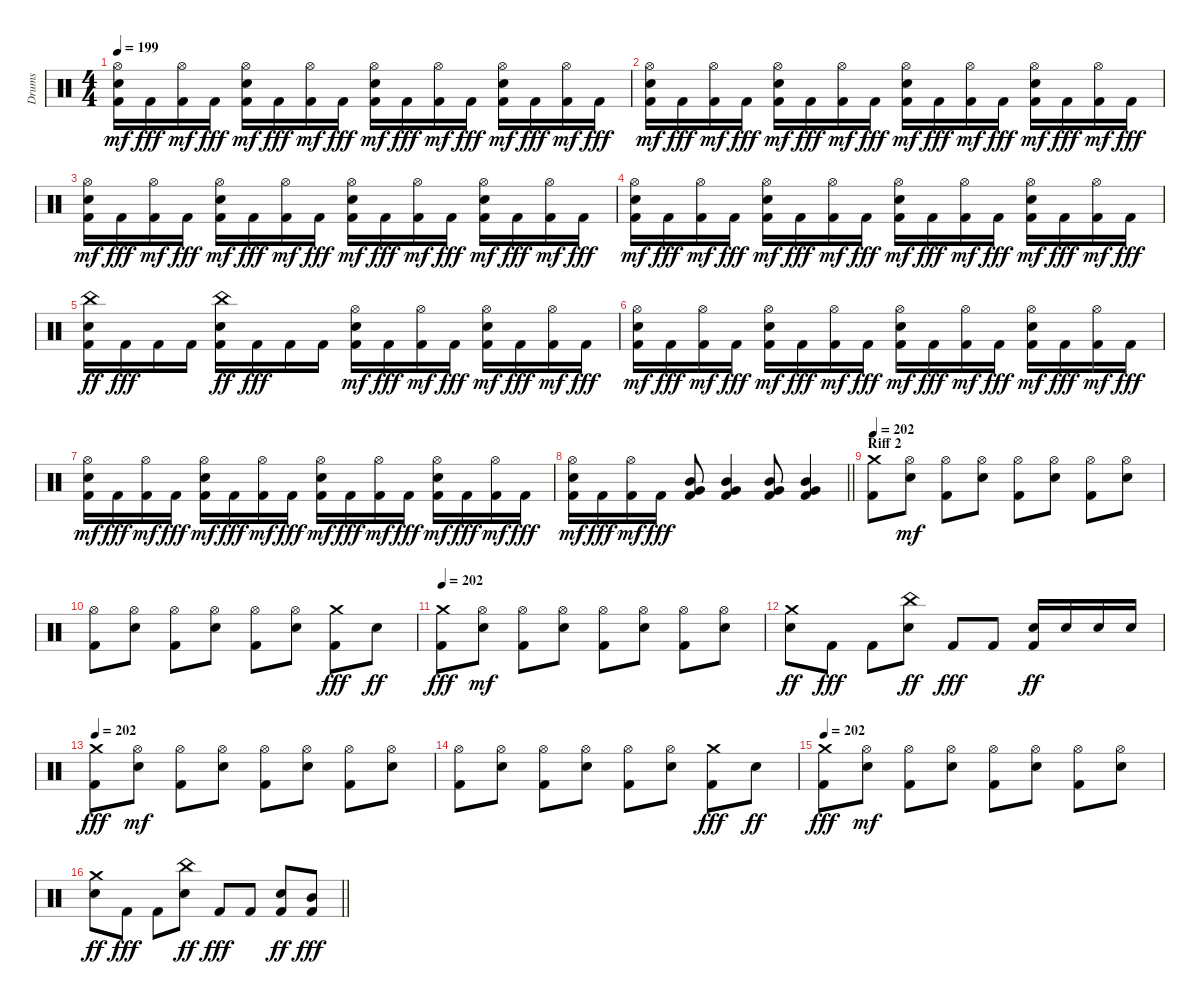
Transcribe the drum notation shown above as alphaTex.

\track ("Drums" "Drums") {instrument percussion}
\staff {score}
\articulation defaults
\ts (4 4)
\tempo 199
\clef neutral
\ks c
("Kick (hit) 2" "Snare (hit) 2" "Hi-Hat (open)").16{dy mf} "Kick (hit) 2".16{dy fff} ("Kick (hit) 2" "Hi-Hat (open)").16{dy mf} "Kick (hit) 2".16{dy fff} ("Kick (hit) 2" "Snare (hit) 2" "Hi-Hat (open)").16{dy mf} "Kick (hit) 2".16{dy fff} ("Kick (hit) 2" "Hi-Hat (open)").16{dy mf} "Kick (hit) 2".16{dy fff} ("Kick (hit) 2" "Snare (hit) 2" "Hi-Hat (open)").16{dy mf} "Kick (hit) 2".16{dy fff} ("Kick (hit) 2" "Hi-Hat (open)").16{dy mf} "Kick (hit) 2".16{dy fff} ("Kick (hit) 2" "Snare (hit) 2" "Hi-Hat (open)").16{dy mf} "Kick (hit) 2".16{dy fff} ("Kick (hit) 2" "Hi-Hat (open)").16{dy mf} "Kick (hit) 2".16{dy fff} |
("Kick (hit) 2" "Snare (hit) 2" "Hi-Hat (open)").16{dy mf} "Kick (hit) 2".16{dy fff} ("Kick (hit) 2" "Hi-Hat (open)").16{dy mf} "Kick (hit) 2".16{dy fff} ("Kick (hit) 2" "Snare (hit) 2" "Hi-Hat (open)").16{dy mf} "Kick (hit) 2".16{dy fff} ("Kick (hit) 2" "Hi-Hat (open)").16{dy mf} "Kick (hit) 2".16{dy fff} ("Kick (hit) 2" "Snare (hit) 2" "Hi-Hat (open)").16{dy mf} "Kick (hit) 2".16{dy fff} ("Kick (hit) 2" "Hi-Hat (open)").16{dy mf} "Kick (hit) 2".16{dy fff} ("Kick (hit) 2" "Snare (hit) 2" "Hi-Hat (open)").16{dy mf} "Kick (hit) 2".16{dy fff} ("Kick (hit) 2" "Hi-Hat (open)").16{dy mf} "Kick (hit) 2".16{dy fff} |
("Kick (hit) 2" "Snare (hit) 2" "Hi-Hat (open)").16{dy mf} "Kick (hit) 2".16{dy fff} ("Kick (hit) 2" "Hi-Hat (open)").16{dy mf} "Kick (hit) 2".16{dy fff} ("Kick (hit) 2" "Snare (hit) 2" "Hi-Hat (open)").16{dy mf} "Kick (hit) 2".16{dy fff} ("Kick (hit) 2" "Hi-Hat (open)").16{dy mf} "Kick (hit) 2".16{dy fff} ("Kick (hit) 2" "Snare (hit) 2" "Hi-Hat (open)").16{dy mf} "Kick (hit) 2".16{dy fff} ("Kick (hit) 2" "Hi-Hat (open)").16{dy mf} "Kick (hit) 2".16{dy fff} ("Kick (hit) 2" "Snare (hit) 2" "Hi-Hat (open)").16{dy mf} "Kick (hit) 2".16{dy fff} ("Kick (hit) 2" "Hi-Hat (open)").16{dy mf} "Kick (hit) 2".16{dy fff} |
("Kick (hit) 2" "Snare (hit) 2" "Hi-Hat (open)").16{dy mf} "Kick (hit) 2".16{dy fff} ("Kick (hit) 2" "Hi-Hat (open)").16{dy mf} "Kick (hit) 2".16{dy fff} ("Kick (hit) 2" "Snare (hit) 2" "Hi-Hat (open)").16{dy mf} "Kick (hit) 2".16{dy fff} ("Kick (hit) 2" "Hi-Hat (open)").16{dy mf} "Kick (hit) 2".16{dy fff} ("Kick (hit) 2" "Snare (hit) 2" "Hi-Hat (open)").16{dy mf} "Kick (hit) 2".16{dy fff} ("Kick (hit) 2" "Hi-Hat (open)").16{dy mf} "Kick (hit) 2".16{dy fff} ("Kick (hit) 2" "Snare (hit) 2" "Hi-Hat (open)").16{dy mf} "Kick (hit) 2".16{dy fff} ("Kick (hit) 2" "Hi-Hat (open)").16{dy mf} "Kick (hit) 2".16{dy fff} |
("Kick (hit) 2" "Snare (hit) 2" "China (hit)").16{dy ff} "Kick (hit) 2".16{dy fff} "Kick (hit) 2".16 "Kick (hit) 2".16 ("Kick (hit) 2" "Snare (hit) 2" "China (hit)").16{dy ff} "Kick (hit) 2".16{dy fff} "Kick (hit) 2".16 "Kick (hit) 2".16 ("Kick (hit) 2" "Snare (hit) 2" "Hi-Hat (open)").16{dy mf} "Kick (hit) 2".16{dy fff} ("Kick (hit) 2" "Hi-Hat (open)").16{dy mf} "Kick (hit) 2".16{dy fff} ("Kick (hit) 2" "Snare (hit) 2" "Hi-Hat (open)").16{dy mf} "Kick (hit) 2".16{dy fff} ("Kick (hit) 2" "Hi-Hat (open)").16{dy mf} "Kick (hit) 2".16{dy fff} |
("Kick (hit) 2" "Snare (hit) 2" "Hi-Hat (open)").16{dy mf} "Kick (hit) 2".16{dy fff} ("Kick (hit) 2" "Hi-Hat (open)").16{dy mf} "Kick (hit) 2".16{dy fff} ("Kick (hit) 2" "Snare (hit) 2" "Hi-Hat (open)").16{dy mf} "Kick (hit) 2".16{dy fff} ("Kick (hit) 2" "Hi-Hat (open)").16{dy mf} "Kick (hit) 2".16{dy fff} ("Kick (hit) 2" "Snare (hit) 2" "Hi-Hat (open)").16{dy mf} "Kick (hit) 2".16{dy fff} ("Kick (hit) 2" "Hi-Hat (open)").16{dy mf} "Kick (hit) 2".16{dy fff} ("Kick (hit) 2" "Snare (hit) 2" "Hi-Hat (open)").16{dy mf} "Kick (hit) 2".16{dy fff} ("Kick (hit) 2" "Hi-Hat (open)").16{dy mf} "Kick (hit) 2".16{dy fff} |
("Kick (hit) 2" "Snare (hit) 2" "Hi-Hat (open)").16{dy mf} "Kick (hit) 2".16{dy fff} ("Kick (hit) 2" "Hi-Hat (open)").16{dy mf} "Kick (hit) 2".16{dy fff} ("Kick (hit) 2" "Snare (hit) 2" "Hi-Hat (open)").16{dy mf} "Kick (hit) 2".16{dy fff} ("Kick (hit) 2" "Hi-Hat (open)").16{dy mf} "Kick (hit) 2".16{dy fff} ("Kick (hit) 2" "Snare (hit) 2" "Hi-Hat (open)").16{dy mf} "Kick (hit) 2".16{dy fff} ("Kick (hit) 2" "Hi-Hat (open)").16{dy mf} "Kick (hit) 2".16{dy fff} ("Kick (hit) 2" "Snare (hit) 2" "Hi-Hat (open)").16{dy mf} "Kick (hit) 2".16{dy fff} ("Kick (hit) 2" "Hi-Hat (open)").16{dy mf} "Kick (hit) 2".16{dy fff} |
\barLineRight lightlight
("Kick (hit) 2" "Snare (hit) 2" "Hi-Hat (open)").16{dy mf} "Kick (hit) 2".16{dy fff} ("Kick (hit) 2" "Hi-Hat (open)").16{dy mf} "Kick (hit) 2".16{dy fff} ("Kick (hit) 2" "Very Low Tom (hit)" "Mid Tom (hit)").8 ("Kick (hit) 2" "Very Low Tom (hit)" "Mid Tom (hit)").4 ("Kick (hit) 2" "Very Low Tom (hit)" "Mid Tom (hit)").8 ("Kick (hit) 2" "Very Low Tom (hit)" "Mid Tom (hit)").4 |
\section ("" "Riff 2")
\tempo 202
("Kick (hit) 2" "Crash medium (hit)").8 ("Snare (hit) 2" "Hi-Hat (open)").8{dy mf} ("Kick (hit) 2" "Hi-Hat (open)").8 ("Snare (hit) 2" "Hi-Hat (open)").8 ("Kick (hit) 2" "Hi-Hat (open)").8 ("Snare (hit) 2" "Hi-Hat (open)").8 ("Kick (hit) 2" "Hi-Hat (open)").8 ("Snare (hit) 2" "Hi-Hat (open)").8 |
("Kick (hit) 2" "Hi-Hat (open)").8 ("Snare (hit) 2" "Hi-Hat (open)").8 ("Kick (hit) 2" "Hi-Hat (open)").8 ("Snare (hit) 2" "Hi-Hat (open)").8 ("Kick (hit) 2" "Hi-Hat (open)").8 ("Snare (hit) 2" "Hi-Hat (open)").8 ("Kick (hit) 2" "Crash medium (hit)").8{dy fff} "Snare (hit) 2".8{dy ff} |
\tempo 202
("Kick (hit) 2" "Crash medium (hit)").8{dy fff} ("Snare (hit) 2" "Hi-Hat (open)").8{dy mf} ("Kick (hit) 2" "Hi-Hat (open)").8 ("Snare (hit) 2" "Hi-Hat (open)").8 ("Kick (hit) 2" "Hi-Hat (open)").8 ("Snare (hit) 2" "Hi-Hat (open)").8 ("Kick (hit) 2" "Hi-Hat (open)").8 ("Snare (hit) 2" "Hi-Hat (open)").8 |
("Snare (hit) 2" "Crash medium (hit)").8{dy ff} "Kick (hit) 2".8{dy fff} "Kick (hit) 2".8 ("Snare (hit) 2" "China (hit)").8{dy ff} "Kick (hit) 2".8{dy fff} "Kick (hit) 2".8 ("Kick (hit) 2" "Snare (hit) 2").16{dy ff} "Snare (hit) 2".16 "Snare (hit) 2".16 "Snare (hit) 2".16 |
\tempo 202
("Kick (hit) 2" "Crash medium (hit)").8{dy fff} ("Snare (hit) 2" "Hi-Hat (open)").8{dy mf} ("Kick (hit) 2" "Hi-Hat (open)").8 ("Snare (hit) 2" "Hi-Hat (open)").8 ("Kick (hit) 2" "Hi-Hat (open)").8 ("Snare (hit) 2" "Hi-Hat (open)").8 ("Kick (hit) 2" "Hi-Hat (open)").8 ("Snare (hit) 2" "Hi-Hat (open)").8 |
("Kick (hit) 2" "Hi-Hat (open)").8 ("Snare (hit) 2" "Hi-Hat (open)").8 ("Kick (hit) 2" "Hi-Hat (open)").8 ("Snare (hit) 2" "Hi-Hat (open)").8 ("Kick (hit) 2" "Hi-Hat (open)").8 ("Snare (hit) 2" "Hi-Hat (open)").8 ("Kick (hit) 2" "Crash medium (hit)").8{dy fff} "Snare (hit) 2".8{dy ff} |
\tempo 202
("Kick (hit) 2" "Crash medium (hit)").8{dy fff} ("Snare (hit) 2" "Hi-Hat (open)").8{dy mf} ("Kick (hit) 2" "Hi-Hat (open)").8 ("Snare (hit) 2" "Hi-Hat (open)").8 ("Kick (hit) 2" "Hi-Hat (open)").8 ("Snare (hit) 2" "Hi-Hat (open)").8 ("Kick (hit) 2" "Hi-Hat (open)").8 ("Snare (hit) 2" "Hi-Hat (open)").8 |
\barLineRight lightlight
("Snare (hit) 2" "Crash medium (hit)").8{dy ff} "Kick (hit) 2".8{dy fff} "Kick (hit) 2".8 ("Snare (hit) 2" "China (hit)").8{dy ff} "Kick (hit) 2".8{dy fff} "Kick (hit) 2".8 ("Kick (hit) 2" "Snare (hit) 2").8{dy ff} ("Kick (hit) 2" "Mid Tom (hit)").8{dy fff}
